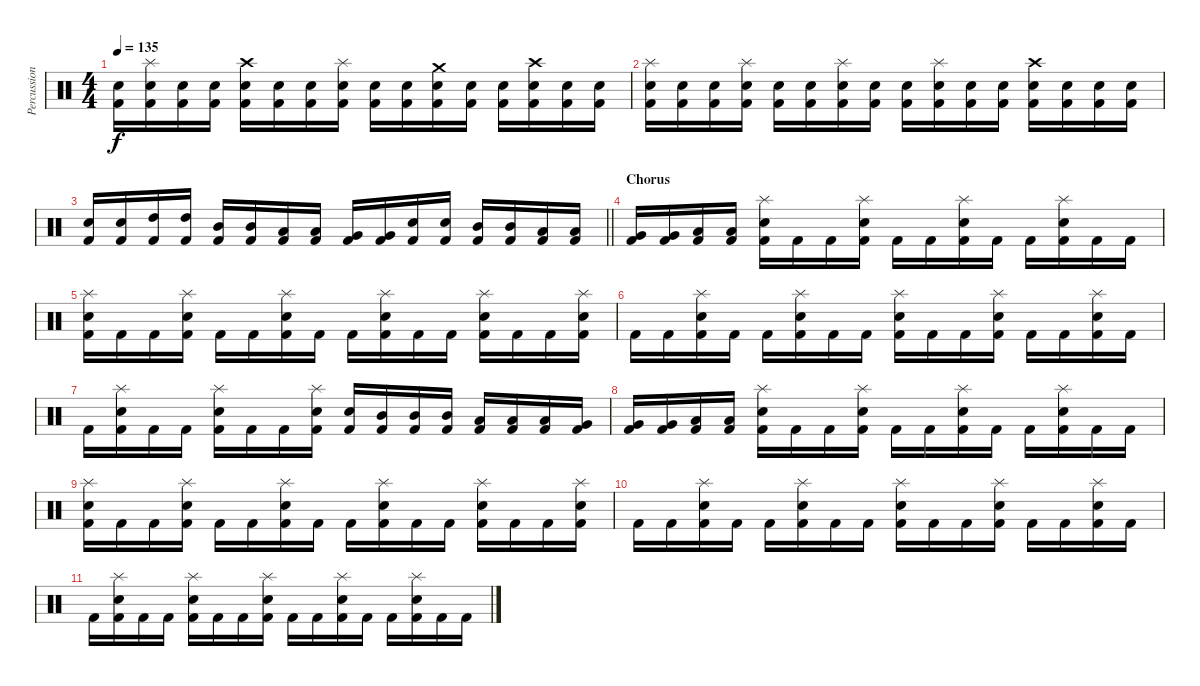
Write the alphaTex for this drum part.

\track ("Percussion" "Percussion") {instrument percussion}
\staff {score}
\articulation defaults
\ts (4 4)
\tempo 135
\clef neutral
\ks c
("Electric Snare (hit)" "Kick (hit) 2").16{dy f} ("Splash (hit)" "Electric Snare (hit)" "Kick (hit) 2").16 ("Electric Snare (hit)" "Kick (hit) 2").16 ("Electric Snare (hit)" "Kick (hit) 2").16 ("Crash high (hit)" "Electric Snare (hit)" "Kick (hit) 2").16 ("Electric Snare (hit)" "Kick (hit) 2").16 ("Electric Snare (hit)" "Kick (hit) 2").16 ("Splash (hit)" "Electric Snare (hit)" "Kick (hit) 2").16 ("Electric Snare (hit)" "Kick (hit) 2").16 ("Electric Snare (hit)" "Kick (hit) 2").16 ("Crash medium (hit)" "Electric Snare (hit)" "Kick (hit) 2").16 ("Electric Snare (hit)" "Kick (hit) 2").16 ("Electric Snare (hit)" "Kick (hit) 2").16 ("Crash high (hit)" "Electric Snare (hit)" "Kick (hit) 2").16 ("Electric Snare (hit)" "Kick (hit) 2").16 ("Electric Snare (hit)" "Kick (hit) 2").16 |
("Splash (hit)" "Electric Snare (hit)" "Kick (hit) 2").16 ("Electric Snare (hit)" "Kick (hit) 2").16 ("Electric Snare (hit)" "Kick (hit) 2").16 ("Splash (hit)" "Electric Snare (hit)" "Kick (hit) 2").16 ("Electric Snare (hit)" "Kick (hit) 2").16 ("Electric Snare (hit)" "Kick (hit) 2").16 ("Splash (hit)" "Electric Snare (hit)" "Kick (hit) 2").16 ("Electric Snare (hit)" "Kick (hit) 2").16 ("Electric Snare (hit)" "Kick (hit) 2").16 ("Splash (hit)" "Electric Snare (hit)" "Kick (hit) 2").16 ("Electric Snare (hit)" "Kick (hit) 2").16 ("Electric Snare (hit)" "Kick (hit) 2").16 ("Crash high (hit)" "Electric Snare (hit)" "Kick (hit) 2").16 ("Electric Snare (hit)" "Kick (hit) 2").16 ("Electric Snare (hit)" "Kick (hit) 2").16 ("Electric Snare (hit)" "Kick (hit) 2").16 |
\barLineRight lightlight
("Electric Snare (hit)" "Kick (hit) 2").16 ("Electric Snare (hit)" "Kick (hit) 2").16 ("High Tom (hit)" "Kick (hit) 2").16 ("High Tom (hit)" "Kick (hit) 2").16 ("Mid Tom (hit)" "Kick (hit) 2").16 ("Mid Tom (hit)" "Kick (hit) 2").16 ("Low Tom (hit)" "Kick (hit) 2").16 ("Low Tom (hit)" "Kick (hit) 2").16 ("Very Low Tom (hit)" "Kick (hit) 2").16 ("Very Low Tom (hit)" "Kick (hit) 2").16 ("Electric Snare (hit)" "Kick (hit) 2").16 ("Electric Snare (hit)" "Kick (hit) 2").16 ("Mid Tom (hit)" "Kick (hit) 2").16 ("Mid Tom (hit)" "Kick (hit) 2").16 ("Low Tom (hit)" "Kick (hit) 2").16 ("Low Tom (hit)" "Kick (hit) 2").16 |
\section ("" "Chorus")
("Very Low Tom (hit)" "Kick (hit) 2").16 ("Very Low Tom (hit)" "Kick (hit) 2").16 ("Low Floor Tom (hit)" "Kick (hit) 2").16 ("Low Floor Tom (hit)" "Kick (hit) 2").16 ("Splash (hit)" "Electric Snare (hit)" "Kick (hit) 2").16 "Kick (hit) 2".16 "Kick (hit) 2".16 ("Splash (hit)" "Electric Snare (hit)" "Kick (hit) 2").16 "Kick (hit) 2".16 "Kick (hit) 2".16 ("Splash (hit)" "Electric Snare (hit)" "Kick (hit) 2").16 "Kick (hit) 2".16 "Kick (hit) 2".16 ("Splash (hit)" "Electric Snare (hit)" "Kick (hit) 2").16 "Kick (hit) 2".16 "Kick (hit) 2".16 |
("Splash (hit)" "Electric Snare (hit)" "Kick (hit) 2").16 "Kick (hit) 2".16 "Kick (hit) 2".16 ("Splash (hit)" "Electric Snare (hit)" "Kick (hit) 2").16 "Kick (hit) 2".16 "Kick (hit) 2".16 ("Splash (hit)" "Electric Snare (hit)" "Kick (hit) 2").16 "Kick (hit) 2".16 "Kick (hit) 2".16 ("Splash (hit)" "Electric Snare (hit)" "Kick (hit) 2").16 "Kick (hit) 2".16 "Kick (hit) 2".16 ("Splash (hit)" "Electric Snare (hit)" "Kick (hit) 2").16 "Kick (hit) 2".16 "Kick (hit) 2".16 ("Splash (hit)" "Electric Snare (hit)" "Kick (hit) 2").16 |
"Kick (hit) 2".16 "Kick (hit) 2".16 ("Splash (hit)" "Electric Snare (hit)" "Kick (hit) 2").16 "Kick (hit) 2".16 "Kick (hit) 2".16 ("Splash (hit)" "Electric Snare (hit)" "Kick (hit) 2").16 "Kick (hit) 2".16 "Kick (hit) 2".16 ("Splash (hit)" "Electric Snare (hit)" "Kick (hit) 2").16 "Kick (hit) 2".16 "Kick (hit) 2".16 ("Splash (hit)" "Electric Snare (hit)" "Kick (hit) 2").16 "Kick (hit) 2".16 "Kick (hit) 2".16 ("Splash (hit)" "Electric Snare (hit)" "Kick (hit) 2").16 "Kick (hit) 2".16 |
"Kick (hit) 2".16 ("Splash (hit)" "Electric Snare (hit)" "Kick (hit) 2").16 "Kick (hit) 2".16 "Kick (hit) 2".16 ("Splash (hit)" "Electric Snare (hit)" "Kick (hit) 2").16 "Kick (hit) 2".16 "Kick (hit) 2".16 ("Splash (hit)" "Electric Snare (hit)" "Kick (hit) 2").16 ("Electric Snare (hit)" "Kick (hit) 2").16 ("Mid Tom (hit)" "Kick (hit) 2").16 ("Mid Tom (hit)" "Kick (hit) 2").16 ("Mid Tom (hit)" "Kick (hit) 2").16 ("Low Tom (hit)" "Kick (hit) 2").16 ("Low Tom (hit)" "Kick (hit) 2").16 ("Low Tom (hit)" "Kick (hit) 2").16 ("Very Low Tom (hit)" "Kick (hit) 2").16 |
("Very Low Tom (hit)" "Kick (hit) 2").16 ("Very Low Tom (hit)" "Kick (hit) 2").16 ("Low Floor Tom (hit)" "Kick (hit) 2").16 ("Low Floor Tom (hit)" "Kick (hit) 2").16 ("Splash (hit)" "Electric Snare (hit)" "Kick (hit) 2").16 "Kick (hit) 2".16 "Kick (hit) 2".16 ("Splash (hit)" "Electric Snare (hit)" "Kick (hit) 2").16 "Kick (hit) 2".16 "Kick (hit) 2".16 ("Splash (hit)" "Electric Snare (hit)" "Kick (hit) 2").16 "Kick (hit) 2".16 "Kick (hit) 2".16 ("Splash (hit)" "Electric Snare (hit)" "Kick (hit) 2").16 "Kick (hit) 2".16 "Kick (hit) 2".16 |
("Splash (hit)" "Electric Snare (hit)" "Kick (hit) 2").16 "Kick (hit) 2".16 "Kick (hit) 2".16 ("Splash (hit)" "Electric Snare (hit)" "Kick (hit) 2").16 "Kick (hit) 2".16 "Kick (hit) 2".16 ("Splash (hit)" "Electric Snare (hit)" "Kick (hit) 2").16 "Kick (hit) 2".16 "Kick (hit) 2".16 ("Splash (hit)" "Electric Snare (hit)" "Kick (hit) 2").16 "Kick (hit) 2".16 "Kick (hit) 2".16 ("Splash (hit)" "Electric Snare (hit)" "Kick (hit) 2").16 "Kick (hit) 2".16 "Kick (hit) 2".16 ("Splash (hit)" "Electric Snare (hit)" "Kick (hit) 2").16 |
"Kick (hit) 2".16 "Kick (hit) 2".16 ("Splash (hit)" "Electric Snare (hit)" "Kick (hit) 2").16 "Kick (hit) 2".16 "Kick (hit) 2".16 ("Splash (hit)" "Electric Snare (hit)" "Kick (hit) 2").16 "Kick (hit) 2".16 "Kick (hit) 2".16 ("Splash (hit)" "Electric Snare (hit)" "Kick (hit) 2").16 "Kick (hit) 2".16 "Kick (hit) 2".16 ("Splash (hit)" "Electric Snare (hit)" "Kick (hit) 2").16 "Kick (hit) 2".16 "Kick (hit) 2".16 ("Splash (hit)" "Electric Snare (hit)" "Kick (hit) 2").16 "Kick (hit) 2".16 |
"Kick (hit) 2".16 ("Splash (hit)" "Electric Snare (hit)" "Kick (hit) 2").16 "Kick (hit) 2".16 "Kick (hit) 2".16 ("Splash (hit)" "Electric Snare (hit)" "Kick (hit) 2").16 "Kick (hit) 2".16 "Kick (hit) 2".16 ("Splash (hit)" "Electric Snare (hit)" "Kick (hit) 2").16 "Kick (hit) 2".16 "Kick (hit) 2".16 ("Splash (hit)" "Electric Snare (hit)" "Kick (hit) 2").16 "Kick (hit) 2".16 "Kick (hit) 2".16 ("Splash (hit)" "Electric Snare (hit)" "Kick (hit) 2").16 "Kick (hit) 2".16 "Kick (hit) 2".16
